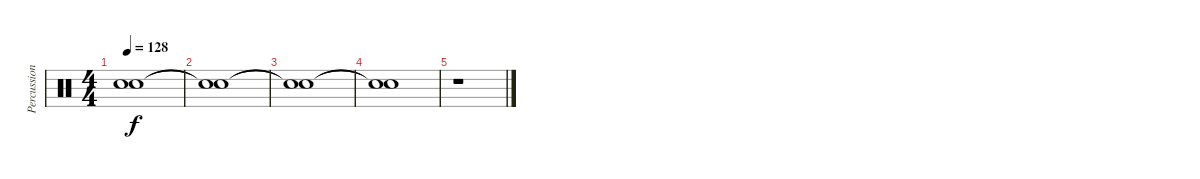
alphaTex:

\track ("Percussion" "Percussion") {instrument percussion}
\staff {score}
\articulation defaults
\ts (4 4)
\tempo 128
\clef neutral
\ks c
("Snare (hit)"{t} "Snare (hit)"{t}).1{dy f} |
("Snare (hit)"{t} "Snare (hit)"{t}).1 |
("Snare (hit)"{t} "Snare (hit)"{t}).1 |
("Snare (hit)"{t} "Snare (hit)"{t}).1 |
r.1
